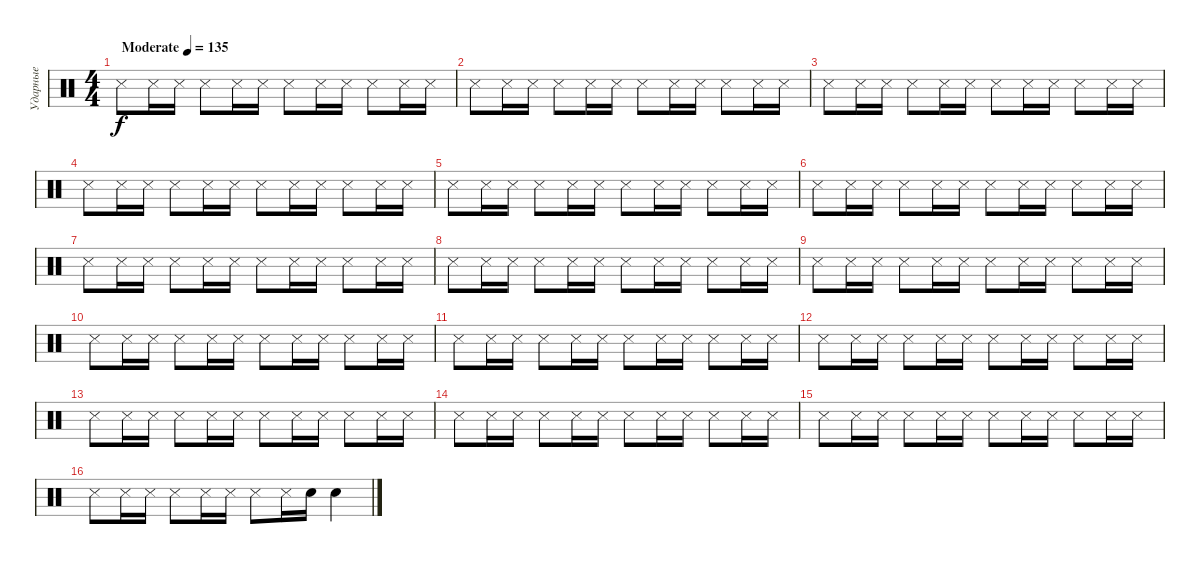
\track ("Ударные" "Ударные") {instrument percussion}
\staff {score}
\articulation defaults
\ts (4 4)
\tempo (135 "Moderate")
\clef neutral
\ks c "Snare (side stick) 3".8{dy f volume 1} "Snare (side stick) 3".16{volume 4} "Snare (side stick) 3".16 "Snare (side stick) 3".8 "Snare (side stick) 3".16 "Snare (side stick) 3".16 "Snare (side stick) 3".8 "Snare (side stick) 3".16 "Snare (side stick) 3".16 "Snare (side stick) 3".8 "Snare (side stick) 3".16 "Snare (side stick) 3".16
|
"Snare (side stick) 3".8 "Snare (side stick) 3".16 "Snare (side stick) 3".16 "Snare (side stick) 3".8 "Snare (side stick) 3".16 "Snare (side stick) 3".16 "Snare (side stick) 3".8 "Snare (side stick) 3".16 "Snare (side stick) 3".16 "Snare (side stick) 3".8 "Snare (side stick) 3".16 "Snare (side stick) 3".16 |
"Snare (side stick) 3".8 "Snare (side stick) 3".16 "Snare (side stick) 3".16 "Snare (side stick) 3".8 "Snare (side stick) 3".16 "Snare (side stick) 3".16 "Snare (side stick) 3".8 "Snare (side stick) 3".16 "Snare (side stick) 3".16 "Snare (side stick) 3".8 "Snare (side stick) 3".16 "Snare (side stick) 3".16 |
"Snare (side stick) 3".8 "Snare (side stick) 3".16 "Snare (side stick) 3".16 "Snare (side stick) 3".8 "Snare (side stick) 3".16 "Snare (side stick) 3".16 "Snare (side stick) 3".8 "Snare (side stick) 3".16 "Snare (side stick) 3".16 "Snare (side stick) 3".8 "Snare (side stick) 3".16 "Snare (side stick) 3".16 |
"Snare (side stick) 3".8{volume 8} "Snare (side stick) 3".16 "Snare (side stick) 3".16 "Snare (side stick) 3".8 "Snare (side stick) 3".16 "Snare (side stick) 3".16 "Snare (side stick) 3".8 "Snare (side stick) 3".16 "Snare (side stick) 3".16 "Snare (side stick) 3".8 "Snare (side stick) 3".16 "Snare (side stick) 3".16 |
"Snare (side stick) 3".8 "Snare (side stick) 3".16 "Snare (side stick) 3".16 "Snare (side stick) 3".8 "Snare (side stick) 3".16 "Snare (side stick) 3".16 "Snare (side stick) 3".8 "Snare (side stick) 3".16 "Snare (side stick) 3".16 "Snare (side stick) 3".8 "Snare (side stick) 3".16 "Snare (side stick) 3".16 |
"Snare (side stick) 3".8 "Snare (side stick) 3".16 "Snare (side stick) 3".16 "Snare (side stick) 3".8 "Snare (side stick) 3".16 "Snare (side stick) 3".16 "Snare (side stick) 3".8 "Snare (side stick) 3".16 "Snare (side stick) 3".16 "Snare (side stick) 3".8 "Snare (side stick) 3".16 "Snare (side stick) 3".16 |
"Snare (side stick) 3".8 "Snare (side stick) 3".16 "Snare (side stick) 3".16 "Snare (side stick) 3".8 "Snare (side stick) 3".16 "Snare (side stick) 3".16 "Snare (side stick) 3".8 "Snare (side stick) 3".16 "Snare (side stick) 3".16 "Snare (side stick) 3".8 "Snare (side stick) 3".16 "Snare (side stick) 3".16 |
"Snare (side stick) 3".8{volume 12} "Snare (side stick) 3".16 "Snare (side stick) 3".16 "Snare (side stick) 3".8 "Snare (side stick) 3".16 "Snare (side stick) 3".16 "Snare (side stick) 3".8 "Snare (side stick) 3".16 "Snare (side stick) 3".16 "Snare (side stick) 3".8 "Snare (side stick) 3".16 "Snare (side stick) 3".16 |
"Snare (side stick) 3".8 "Snare (side stick) 3".16 "Snare (side stick) 3".16 "Snare (side stick) 3".8 "Snare (side stick) 3".16 "Snare (side stick) 3".16 "Snare (side stick) 3".8 "Snare (side stick) 3".16 "Snare (side stick) 3".16 "Snare (side stick) 3".8 "Snare (side stick) 3".16 "Snare (side stick) 3".16 |
"Snare (side stick) 3".8 "Snare (side stick) 3".16 "Snare (side stick) 3".16 "Snare (side stick) 3".8 "Snare (side stick) 3".16 "Snare (side stick) 3".16 "Snare (side stick) 3".8 "Snare (side stick) 3".16 "Snare (side stick) 3".16 "Snare (side stick) 3".8 "Snare (side stick) 3".16 "Snare (side stick) 3".16 |
"Snare (side stick) 3".8 "Snare (side stick) 3".16 "Snare (side stick) 3".16 "Snare (side stick) 3".8 "Snare (side stick) 3".16 "Snare (side stick) 3".16 "Snare (side stick) 3".8 "Snare (side stick) 3".16 "Snare (side stick) 3".16 "Snare (side stick) 3".8 "Snare (side stick) 3".16 "Snare (side stick) 3".16 |
"Snare (side stick) 3".8{volume 16} "Snare (side stick) 3".16 "Snare (side stick) 3".16 "Snare (side stick) 3".8 "Snare (side stick) 3".16 "Snare (side stick) 3".16 "Snare (side stick) 3".8 "Snare (side stick) 3".16 "Snare (side stick) 3".16 "Snare (side stick) 3".8 "Snare (side stick) 3".16 "Snare (side stick) 3".16 |
"Snare (side stick) 3".8 "Snare (side stick) 3".16 "Snare (side stick) 3".16 "Snare (side stick) 3".8 "Snare (side stick) 3".16 "Snare (side stick) 3".16 "Snare (side stick) 3".8 "Snare (side stick) 3".16 "Snare (side stick) 3".16 "Snare (side stick) 3".8 "Snare (side stick) 3".16 "Snare (side stick) 3".16 |
"Snare (side stick) 3".8 "Snare (side stick) 3".16 "Snare (side stick) 3".16 "Snare (side stick) 3".8 "Snare (side stick) 3".16 "Snare (side stick) 3".16 "Snare (side stick) 3".8 "Snare (side stick) 3".16 "Snare (side stick) 3".16 "Snare (side stick) 3".8 "Snare (side stick) 3".16 "Snare (side stick) 3".16 |
"Snare (side stick) 3".8 "Snare (side stick) 3".16 "Snare (side stick) 3".16 "Snare (side stick) 3".8 "Snare (side stick) 3".16 "Snare (side stick) 3".16 "Snare (side stick) 3".8 "Snare (side stick) 3".16 "Snare (hit) 2".16 "Snare (hit) 2".4
